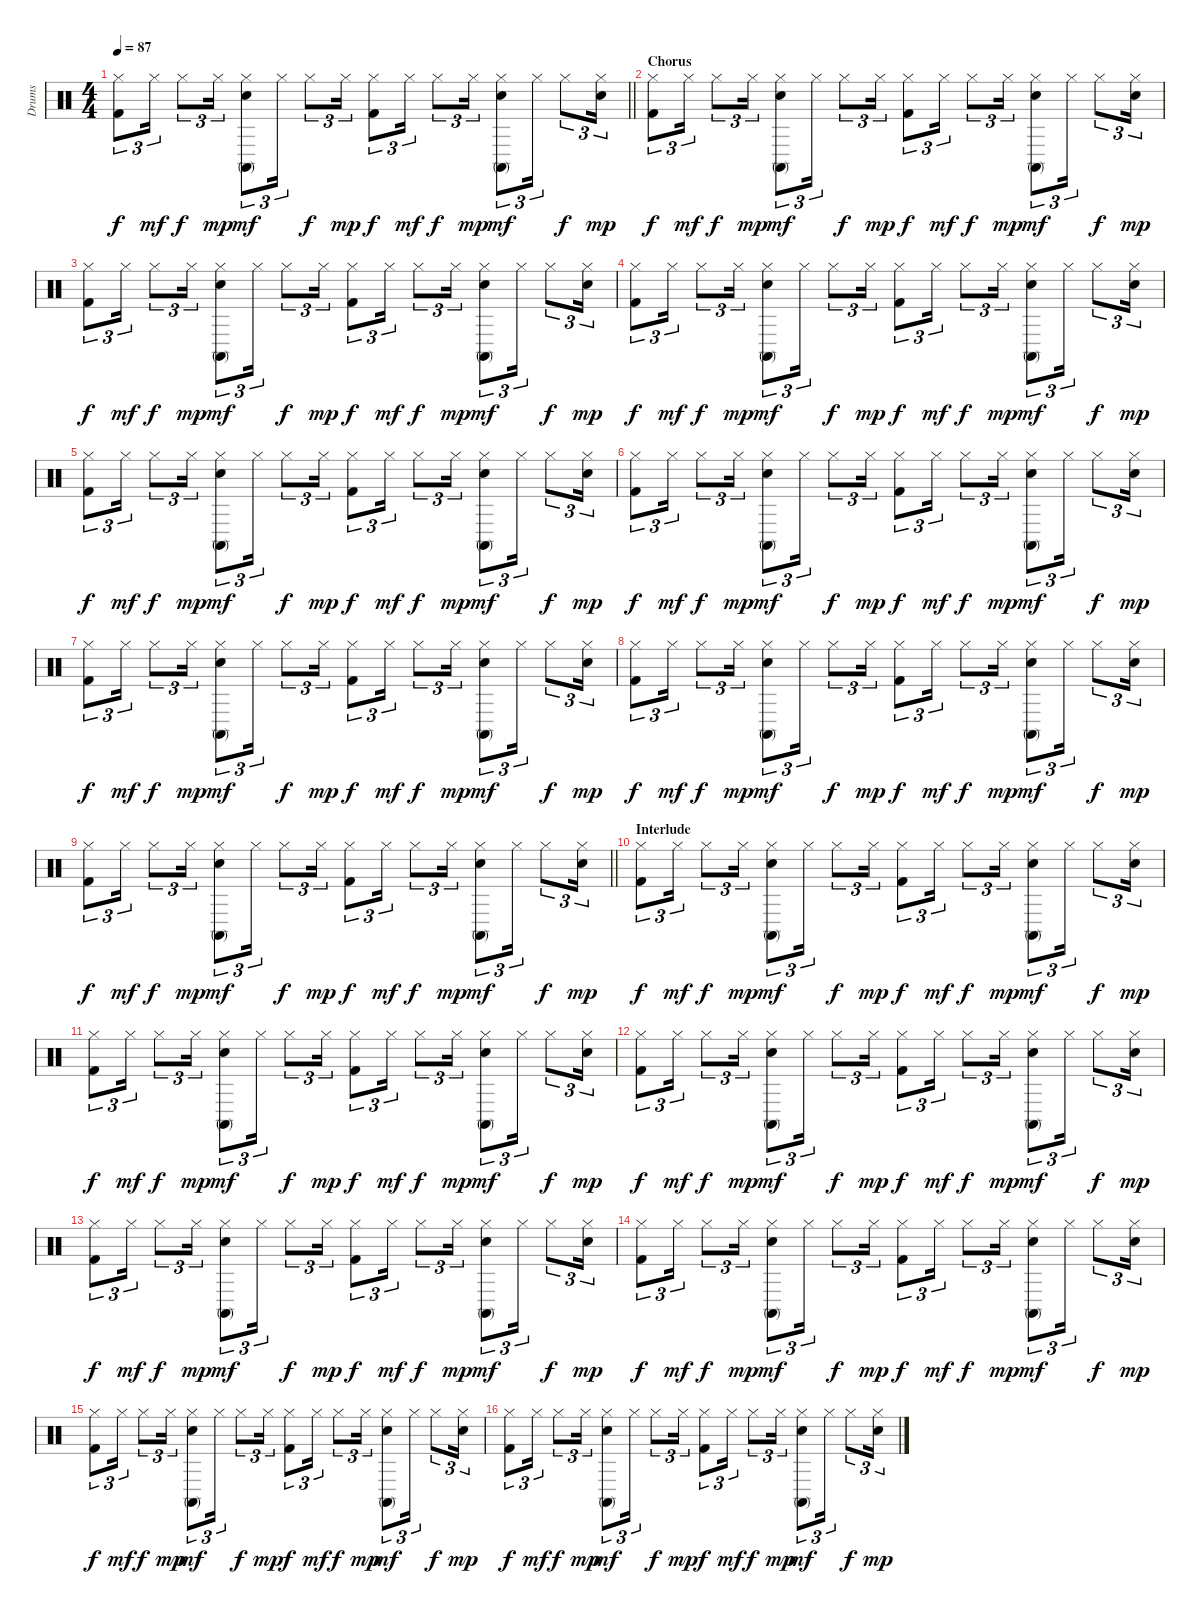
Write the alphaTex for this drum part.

\track ("Drums" "Drums") {instrument percussion}
\staff {score}
\articulation defaults
\ts (4 4)
\tempo 87
\clef neutral
\barLineRight lightlight
\ks c
("Hi-Hat (closed)" "Kick (hit) 2").8{tu (3 2) dy f} "Hi-Hat (closed)".16{tu (3 2) dy mf} "Hi-Hat (closed)".8{tu (3 2) dy f} "Hi-Hat (closed)".16{tu (3 2) dy mp} ("Conga high (mute)" "Hi-Hat (closed)" "Electric Snare (hit)").8{tu (3 2) dy mf} "Hi-Hat (closed)".16{tu (3 2)} "Hi-Hat (closed)".8{tu (3 2) dy f} "Hi-Hat (closed)".16{tu (3 2) dy mp} ("Hi-Hat (closed)" "Kick (hit) 2").8{tu (3 2) dy f} "Hi-Hat (closed)".16{tu (3 2) dy mf} "Hi-Hat (closed)".8{tu (3 2) dy f} "Hi-Hat (closed)".16{tu (3 2) dy mp} ("Conga high (mute)" "Hi-Hat (closed)" "Electric Snare (hit)").8{tu (3 2) dy mf} "Hi-Hat (closed)".16{tu (3 2)} "Hi-Hat (closed)".8{tu (3 2) dy f} ("Hi-Hat (closed)" "Electric Snare (hit)").16{tu (3 2) dy mp} |
\section ("" "Chorus")
("Hi-Hat (closed)" "Kick (hit) 2").8{tu (3 2) dy f} "Hi-Hat (closed)".16{tu (3 2) dy mf} "Hi-Hat (closed)".8{tu (3 2) dy f} "Hi-Hat (closed)".16{tu (3 2) dy mp} ("Conga high (mute)" "Hi-Hat (closed)" "Electric Snare (hit)").8{tu (3 2) dy mf} "Hi-Hat (closed)".16{tu (3 2)} "Hi-Hat (closed)".8{tu (3 2) dy f} "Hi-Hat (closed)".16{tu (3 2) dy mp} ("Hi-Hat (closed)" "Kick (hit) 2").8{tu (3 2) dy f} "Hi-Hat (closed)".16{tu (3 2) dy mf} "Hi-Hat (closed)".8{tu (3 2) dy f} "Hi-Hat (closed)".16{tu (3 2) dy mp} ("Conga high (mute)" "Hi-Hat (closed)" "Electric Snare (hit)").8{tu (3 2) dy mf} "Hi-Hat (closed)".16{tu (3 2)} "Hi-Hat (closed)".8{tu (3 2) dy f} ("Hi-Hat (closed)" "Electric Snare (hit)").16{tu (3 2) dy mp} |
("Hi-Hat (closed)" "Kick (hit) 2").8{tu (3 2) dy f} "Hi-Hat (closed)".16{tu (3 2) dy mf} "Hi-Hat (closed)".8{tu (3 2) dy f} "Hi-Hat (closed)".16{tu (3 2) dy mp} ("Conga high (mute)" "Hi-Hat (closed)" "Electric Snare (hit)").8{tu (3 2) dy mf} "Hi-Hat (closed)".16{tu (3 2)} "Hi-Hat (closed)".8{tu (3 2) dy f} "Hi-Hat (closed)".16{tu (3 2) dy mp} ("Hi-Hat (closed)" "Kick (hit) 2").8{tu (3 2) dy f} "Hi-Hat (closed)".16{tu (3 2) dy mf} "Hi-Hat (closed)".8{tu (3 2) dy f} "Hi-Hat (closed)".16{tu (3 2) dy mp} ("Conga high (mute)" "Hi-Hat (closed)" "Electric Snare (hit)").8{tu (3 2) dy mf} "Hi-Hat (closed)".16{tu (3 2)} "Hi-Hat (closed)".8{tu (3 2) dy f} ("Hi-Hat (closed)" "Electric Snare (hit)").16{tu (3 2) dy mp} |
("Hi-Hat (closed)" "Kick (hit) 2").8{tu (3 2) dy f} "Hi-Hat (closed)".16{tu (3 2) dy mf} "Hi-Hat (closed)".8{tu (3 2) dy f} "Hi-Hat (closed)".16{tu (3 2) dy mp} ("Conga high (mute)" "Hi-Hat (closed)" "Electric Snare (hit)").8{tu (3 2) dy mf} "Hi-Hat (closed)".16{tu (3 2)} "Hi-Hat (closed)".8{tu (3 2) dy f} "Hi-Hat (closed)".16{tu (3 2) dy mp} ("Hi-Hat (closed)" "Kick (hit) 2").8{tu (3 2) dy f} "Hi-Hat (closed)".16{tu (3 2) dy mf} "Hi-Hat (closed)".8{tu (3 2) dy f} "Hi-Hat (closed)".16{tu (3 2) dy mp} ("Conga high (mute)" "Hi-Hat (closed)" "Electric Snare (hit)").8{tu (3 2) dy mf} "Hi-Hat (closed)".16{tu (3 2)} "Hi-Hat (closed)".8{tu (3 2) dy f} ("Hi-Hat (closed)" "Electric Snare (hit)").16{tu (3 2) dy mp} |
("Hi-Hat (closed)" "Kick (hit) 2").8{tu (3 2) dy f} "Hi-Hat (closed)".16{tu (3 2) dy mf} "Hi-Hat (closed)".8{tu (3 2) dy f} "Hi-Hat (closed)".16{tu (3 2) dy mp} ("Conga high (mute)" "Hi-Hat (closed)" "Electric Snare (hit)").8{tu (3 2) dy mf} "Hi-Hat (closed)".16{tu (3 2)} "Hi-Hat (closed)".8{tu (3 2) dy f} "Hi-Hat (closed)".16{tu (3 2) dy mp} ("Hi-Hat (closed)" "Kick (hit) 2").8{tu (3 2) dy f} "Hi-Hat (closed)".16{tu (3 2) dy mf} "Hi-Hat (closed)".8{tu (3 2) dy f} "Hi-Hat (closed)".16{tu (3 2) dy mp} ("Conga high (mute)" "Hi-Hat (closed)" "Electric Snare (hit)").8{tu (3 2) dy mf} "Hi-Hat (closed)".16{tu (3 2)} "Hi-Hat (closed)".8{tu (3 2) dy f} ("Hi-Hat (closed)" "Electric Snare (hit)").16{tu (3 2) dy mp} |
("Hi-Hat (closed)" "Kick (hit) 2").8{tu (3 2) dy f} "Hi-Hat (closed)".16{tu (3 2) dy mf} "Hi-Hat (closed)".8{tu (3 2) dy f} "Hi-Hat (closed)".16{tu (3 2) dy mp} ("Conga high (mute)" "Hi-Hat (closed)" "Electric Snare (hit)").8{tu (3 2) dy mf} "Hi-Hat (closed)".16{tu (3 2)} "Hi-Hat (closed)".8{tu (3 2) dy f} "Hi-Hat (closed)".16{tu (3 2) dy mp} ("Hi-Hat (closed)" "Kick (hit) 2").8{tu (3 2) dy f} "Hi-Hat (closed)".16{tu (3 2) dy mf} "Hi-Hat (closed)".8{tu (3 2) dy f} "Hi-Hat (closed)".16{tu (3 2) dy mp} ("Conga high (mute)" "Hi-Hat (closed)" "Electric Snare (hit)").8{tu (3 2) dy mf} "Hi-Hat (closed)".16{tu (3 2)} "Hi-Hat (closed)".8{tu (3 2) dy f} ("Hi-Hat (closed)" "Electric Snare (hit)").16{tu (3 2) dy mp} |
("Hi-Hat (closed)" "Kick (hit) 2").8{tu (3 2) dy f} "Hi-Hat (closed)".16{tu (3 2) dy mf} "Hi-Hat (closed)".8{tu (3 2) dy f} "Hi-Hat (closed)".16{tu (3 2) dy mp} ("Conga high (mute)" "Hi-Hat (closed)" "Electric Snare (hit)").8{tu (3 2) dy mf} "Hi-Hat (closed)".16{tu (3 2)} "Hi-Hat (closed)".8{tu (3 2) dy f} "Hi-Hat (closed)".16{tu (3 2) dy mp} ("Hi-Hat (closed)" "Kick (hit) 2").8{tu (3 2) dy f} "Hi-Hat (closed)".16{tu (3 2) dy mf} "Hi-Hat (closed)".8{tu (3 2) dy f} "Hi-Hat (closed)".16{tu (3 2) dy mp} ("Conga high (mute)" "Hi-Hat (closed)" "Electric Snare (hit)").8{tu (3 2) dy mf} "Hi-Hat (closed)".16{tu (3 2)} "Hi-Hat (closed)".8{tu (3 2) dy f} ("Hi-Hat (closed)" "Electric Snare (hit)").16{tu (3 2) dy mp} |
("Hi-Hat (closed)" "Kick (hit) 2").8{tu (3 2) dy f} "Hi-Hat (closed)".16{tu (3 2) dy mf} "Hi-Hat (closed)".8{tu (3 2) dy f} "Hi-Hat (closed)".16{tu (3 2) dy mp} ("Conga high (mute)" "Hi-Hat (closed)" "Electric Snare (hit)").8{tu (3 2) dy mf} "Hi-Hat (closed)".16{tu (3 2)} "Hi-Hat (closed)".8{tu (3 2) dy f} "Hi-Hat (closed)".16{tu (3 2) dy mp} ("Hi-Hat (closed)" "Kick (hit) 2").8{tu (3 2) dy f} "Hi-Hat (closed)".16{tu (3 2) dy mf} "Hi-Hat (closed)".8{tu (3 2) dy f} "Hi-Hat (closed)".16{tu (3 2) dy mp} ("Conga high (mute)" "Hi-Hat (closed)" "Electric Snare (hit)").8{tu (3 2) dy mf} "Hi-Hat (closed)".16{tu (3 2)} "Hi-Hat (closed)".8{tu (3 2) dy f} ("Hi-Hat (closed)" "Electric Snare (hit)").16{tu (3 2) dy mp} |
\barLineRight lightlight
("Hi-Hat (closed)" "Kick (hit) 2").8{tu (3 2) dy f} "Hi-Hat (closed)".16{tu (3 2) dy mf} "Hi-Hat (closed)".8{tu (3 2) dy f} "Hi-Hat (closed)".16{tu (3 2) dy mp} ("Conga high (mute)" "Hi-Hat (closed)" "Electric Snare (hit)").8{tu (3 2) dy mf} "Hi-Hat (closed)".16{tu (3 2)} "Hi-Hat (closed)".8{tu (3 2) dy f} "Hi-Hat (closed)".16{tu (3 2) dy mp} ("Hi-Hat (closed)" "Kick (hit) 2").8{tu (3 2) dy f} "Hi-Hat (closed)".16{tu (3 2) dy mf} "Hi-Hat (closed)".8{tu (3 2) dy f} "Hi-Hat (closed)".16{tu (3 2) dy mp} ("Conga high (mute)" "Hi-Hat (closed)" "Electric Snare (hit)").8{tu (3 2) dy mf} "Hi-Hat (closed)".16{tu (3 2)} "Hi-Hat (closed)".8{tu (3 2) dy f} ("Hi-Hat (closed)" "Electric Snare (hit)").16{tu (3 2) dy mp} |
\section ("" "Interlude")
("Hi-Hat (closed)" "Kick (hit) 2").8{tu (3 2) dy f} "Hi-Hat (closed)".16{tu (3 2) dy mf} "Hi-Hat (closed)".8{tu (3 2) dy f} "Hi-Hat (closed)".16{tu (3 2) dy mp} ("Conga high (mute)" "Hi-Hat (closed)" "Electric Snare (hit)").8{tu (3 2) dy mf} "Hi-Hat (closed)".16{tu (3 2)} "Hi-Hat (closed)".8{tu (3 2) dy f} "Hi-Hat (closed)".16{tu (3 2) dy mp} ("Hi-Hat (closed)" "Kick (hit) 2").8{tu (3 2) dy f} "Hi-Hat (closed)".16{tu (3 2) dy mf} "Hi-Hat (closed)".8{tu (3 2) dy f} "Hi-Hat (closed)".16{tu (3 2) dy mp} ("Conga high (mute)" "Hi-Hat (closed)" "Electric Snare (hit)").8{tu (3 2) dy mf} "Hi-Hat (closed)".16{tu (3 2)} "Hi-Hat (closed)".8{tu (3 2) dy f} ("Hi-Hat (closed)" "Electric Snare (hit)").16{tu (3 2) dy mp} |
("Hi-Hat (closed)" "Kick (hit) 2").8{tu (3 2) dy f} "Hi-Hat (closed)".16{tu (3 2) dy mf} "Hi-Hat (closed)".8{tu (3 2) dy f} "Hi-Hat (closed)".16{tu (3 2) dy mp} ("Conga high (mute)" "Hi-Hat (closed)" "Electric Snare (hit)").8{tu (3 2) dy mf} "Hi-Hat (closed)".16{tu (3 2)} "Hi-Hat (closed)".8{tu (3 2) dy f} "Hi-Hat (closed)".16{tu (3 2) dy mp} ("Hi-Hat (closed)" "Kick (hit) 2").8{tu (3 2) dy f} "Hi-Hat (closed)".16{tu (3 2) dy mf} "Hi-Hat (closed)".8{tu (3 2) dy f} "Hi-Hat (closed)".16{tu (3 2) dy mp} ("Conga high (mute)" "Hi-Hat (closed)" "Electric Snare (hit)").8{tu (3 2) dy mf} "Hi-Hat (closed)".16{tu (3 2)} "Hi-Hat (closed)".8{tu (3 2) dy f} ("Hi-Hat (closed)" "Electric Snare (hit)").16{tu (3 2) dy mp} |
("Hi-Hat (closed)" "Kick (hit) 2").8{tu (3 2) dy f} "Hi-Hat (closed)".16{tu (3 2) dy mf} "Hi-Hat (closed)".8{tu (3 2) dy f} "Hi-Hat (closed)".16{tu (3 2) dy mp} ("Conga high (mute)" "Hi-Hat (closed)" "Electric Snare (hit)").8{tu (3 2) dy mf} "Hi-Hat (closed)".16{tu (3 2)} "Hi-Hat (closed)".8{tu (3 2) dy f} "Hi-Hat (closed)".16{tu (3 2) dy mp} ("Hi-Hat (closed)" "Kick (hit) 2").8{tu (3 2) dy f} "Hi-Hat (closed)".16{tu (3 2) dy mf} "Hi-Hat (closed)".8{tu (3 2) dy f} "Hi-Hat (closed)".16{tu (3 2) dy mp} ("Conga high (mute)" "Hi-Hat (closed)" "Electric Snare (hit)").8{tu (3 2) dy mf} "Hi-Hat (closed)".16{tu (3 2)} "Hi-Hat (closed)".8{tu (3 2) dy f} ("Hi-Hat (closed)" "Electric Snare (hit)").16{tu (3 2) dy mp} |
("Hi-Hat (closed)" "Kick (hit) 2").8{tu (3 2) dy f} "Hi-Hat (closed)".16{tu (3 2) dy mf} "Hi-Hat (closed)".8{tu (3 2) dy f} "Hi-Hat (closed)".16{tu (3 2) dy mp} ("Conga high (mute)" "Hi-Hat (closed)" "Electric Snare (hit)").8{tu (3 2) dy mf} "Hi-Hat (closed)".16{tu (3 2)} "Hi-Hat (closed)".8{tu (3 2) dy f} "Hi-Hat (closed)".16{tu (3 2) dy mp} ("Hi-Hat (closed)" "Kick (hit) 2").8{tu (3 2) dy f} "Hi-Hat (closed)".16{tu (3 2) dy mf} "Hi-Hat (closed)".8{tu (3 2) dy f} "Hi-Hat (closed)".16{tu (3 2) dy mp} ("Conga high (mute)" "Hi-Hat (closed)" "Electric Snare (hit)").8{tu (3 2) dy mf} "Hi-Hat (closed)".16{tu (3 2)} "Hi-Hat (closed)".8{tu (3 2) dy f} ("Hi-Hat (closed)" "Electric Snare (hit)").16{tu (3 2) dy mp} |
("Hi-Hat (closed)" "Kick (hit) 2").8{tu (3 2) dy f} "Hi-Hat (closed)".16{tu (3 2) dy mf} "Hi-Hat (closed)".8{tu (3 2) dy f} "Hi-Hat (closed)".16{tu (3 2) dy mp} ("Conga high (mute)" "Hi-Hat (closed)" "Electric Snare (hit)").8{tu (3 2) dy mf} "Hi-Hat (closed)".16{tu (3 2)} "Hi-Hat (closed)".8{tu (3 2) dy f} "Hi-Hat (closed)".16{tu (3 2) dy mp} ("Hi-Hat (closed)" "Kick (hit) 2").8{tu (3 2) dy f} "Hi-Hat (closed)".16{tu (3 2) dy mf} "Hi-Hat (closed)".8{tu (3 2) dy f} "Hi-Hat (closed)".16{tu (3 2) dy mp} ("Conga high (mute)" "Hi-Hat (closed)" "Electric Snare (hit)").8{tu (3 2) dy mf} "Hi-Hat (closed)".16{tu (3 2)} "Hi-Hat (closed)".8{tu (3 2) dy f} ("Hi-Hat (closed)" "Electric Snare (hit)").16{tu (3 2) dy mp} |
("Hi-Hat (closed)" "Kick (hit) 2").8{tu (3 2) dy f} "Hi-Hat (closed)".16{tu (3 2) dy mf} "Hi-Hat (closed)".8{tu (3 2) dy f} "Hi-Hat (closed)".16{tu (3 2) dy mp} ("Conga high (mute)" "Hi-Hat (closed)" "Electric Snare (hit)").8{tu (3 2) dy mf} "Hi-Hat (closed)".16{tu (3 2)} "Hi-Hat (closed)".8{tu (3 2) dy f} "Hi-Hat (closed)".16{tu (3 2) dy mp} ("Hi-Hat (closed)" "Kick (hit) 2").8{tu (3 2) dy f} "Hi-Hat (closed)".16{tu (3 2) dy mf} "Hi-Hat (closed)".8{tu (3 2) dy f} "Hi-Hat (closed)".16{tu (3 2) dy mp} ("Conga high (mute)" "Hi-Hat (closed)" "Electric Snare (hit)").8{tu (3 2) dy mf} "Hi-Hat (closed)".16{tu (3 2)} "Hi-Hat (closed)".8{tu (3 2) dy f} ("Hi-Hat (closed)" "Electric Snare (hit)").16{tu (3 2) dy mp} |
("Hi-Hat (closed)" "Kick (hit) 2").8{tu (3 2) dy f} "Hi-Hat (closed)".16{tu (3 2) dy mf} "Hi-Hat (closed)".8{tu (3 2) dy f} "Hi-Hat (closed)".16{tu (3 2) dy mp} ("Conga high (mute)" "Hi-Hat (closed)" "Electric Snare (hit)").8{tu (3 2) dy mf} "Hi-Hat (closed)".16{tu (3 2)} "Hi-Hat (closed)".8{tu (3 2) dy f} "Hi-Hat (closed)".16{tu (3 2) dy mp} ("Hi-Hat (closed)" "Kick (hit) 2").8{tu (3 2) dy f} "Hi-Hat (closed)".16{tu (3 2) dy mf} "Hi-Hat (closed)".8{tu (3 2) dy f} "Hi-Hat (closed)".16{tu (3 2) dy mp} ("Conga high (mute)" "Hi-Hat (closed)" "Electric Snare (hit)").8{tu (3 2) dy mf} "Hi-Hat (closed)".16{tu (3 2)} "Hi-Hat (closed)".8{tu (3 2) dy f} ("Hi-Hat (closed)" "Electric Snare (hit)").16{tu (3 2) dy mp}
